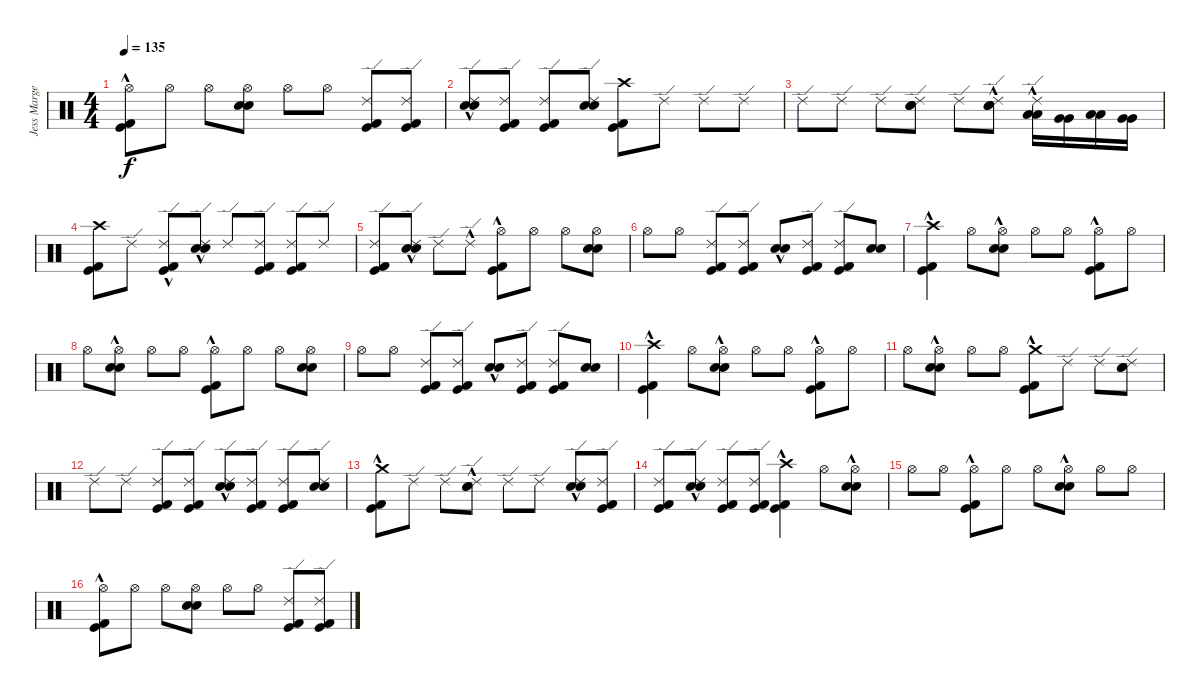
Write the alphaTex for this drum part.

\track ("Jess Margera" "Jess Marge") {instrument percussion}
\staff {score}
\articulation defaults
\ts (4 4)
\tempo 135
\clef neutral
\ks c
("Kick (hit)"{hac} "Kick (hit) 2"{hac} "Hi-Hat (open)").8{dy f} "Hi-Hat (open)".8 "Hi-Hat (open)".8 ("Electric Snare (hit)" "Electric Snare (hit)" "Hi-Hat (open)").8 "Hi-Hat (open)".8 "Hi-Hat (open)".8 ("Kick (hit)" "Kick (hit) 2" "Ride (edge) 2").8 ("Kick (hit)" "Kick (hit) 2" "Ride (edge) 2").8 |
("Electric Snare (hit)"{hac} "Electric Snare (hit)"{hac} "Ride (edge) 2").8 ("Kick (hit)" "Kick (hit) 2" "Ride (edge) 2").8 ("Kick (hit)" "Kick (hit) 2" "Ride (edge) 2").8 ("Electric Snare (hit)" "Electric Snare (hit)" "Ride (edge) 2").8 ("Kick (hit)" "Kick (hit) 2" "Crash high (hit)").8 "Ride (edge) 2".8 "Ride (edge) 2".8 "Ride (edge) 2".8 |
"Ride (edge) 2".8 "Ride (edge) 2".8 "Ride (edge) 2".8 ("Electric Snare (hit)" "Electric Snare (hit)" "Ride (edge) 2").8 "Ride (edge) 2".8 ("Electric Snare (hit)"{hac} "Electric Snare (hit)"{hac} "Ride (edge) 2").8 ("Low Tom (hit)" "Low Tom (hit)" "Ride (edge) 2"{hac}).16 ("Very Low Tom (hit)" "Very Low Tom (hit)").16 ("Low Tom (hit)" "Low Tom (hit)").16 ("Very Low Tom (hit)" "Very Low Tom (hit)").16 |
("Kick (hit)" "Kick (hit) 2" "Crash high (hit)").8 "Ride (edge) 2".8 ("Kick (hit)"{hac} "Kick (hit) 2"{hac} "Ride (edge) 2").8 ("Electric Snare (hit)"{hac} "Electric Snare (hit)"{hac} "Ride (edge) 2").8 "Ride (edge) 2".8 ("Kick (hit)" "Kick (hit) 2" "Ride (edge) 2").8 ("Kick (hit)" "Kick (hit) 2" "Ride (edge) 2").8 "Ride (edge) 2".8 |
("Kick (hit)" "Kick (hit) 2" "Ride (edge) 2").8 ("Electric Snare (hit)"{hac} "Electric Snare (hit)"{hac} "Ride (edge) 2").8 "Ride (edge) 2".8 "Ride (edge) 2"{hac}.8 ("Kick (hit)"{hac} "Kick (hit) 2"{hac} "Hi-Hat (open)").8 "Hi-Hat (open)".8 "Hi-Hat (open)".8 ("Electric Snare (hit)" "Electric Snare (hit)" "Hi-Hat (open)").8 |
"Hi-Hat (open)".8 "Hi-Hat (open)".8 ("Kick (hit)" "Kick (hit) 2" "Ride (edge) 2").8 ("Kick (hit)" "Kick (hit) 2" "Ride (edge) 2").8 ("Electric Snare (hit)"{hac} "Electric Snare (hit)"{hac}).8 ("Kick (hit)" "Kick (hit) 2" "Ride (edge) 2").8 ("Kick (hit)" "Kick (hit) 2" "Ride (edge) 2").8 ("Electric Snare (hit)" "Electric Snare (hit)").8 |
("Kick (hit)"{hac} "Kick (hit) 2"{hac} "Crash high (hit)").4 "Hi-Hat (open)".8 ("Electric Snare (hit)"{hac} "Electric Snare (hit)"{hac} "Hi-Hat (open)").8 "Hi-Hat (open)".8 "Hi-Hat (open)".8 ("Kick (hit)"{hac} "Kick (hit) 2"{hac} "Hi-Hat (open)").8 "Hi-Hat (open)".8 |
"Hi-Hat (open)".8 ("Electric Snare (hit)"{hac} "Electric Snare (hit)"{hac} "Hi-Hat (open)").8 "Hi-Hat (open)".8 "Hi-Hat (open)".8 ("Kick (hit)"{hac} "Kick (hit) 2"{hac} "Hi-Hat (open)").8 "Hi-Hat (open)".8 "Hi-Hat (open)".8 ("Electric Snare (hit)" "Electric Snare (hit)" "Hi-Hat (open)").8 |
"Hi-Hat (open)".8 "Hi-Hat (open)".8 ("Kick (hit)" "Kick (hit) 2" "Ride (edge) 2").8 ("Kick (hit)" "Kick (hit) 2" "Ride (edge) 2").8 ("Electric Snare (hit)"{hac} "Electric Snare (hit)"{hac}).8 ("Kick (hit)" "Kick (hit) 2" "Ride (edge) 2").8 ("Kick (hit)" "Kick (hit) 2" "Ride (edge) 2").8 ("Electric Snare (hit)" "Electric Snare (hit)").8 |
("Kick (hit)"{hac} "Kick (hit) 2"{hac} "Crash high (hit)").4 "Hi-Hat (open)".8 ("Electric Snare (hit)"{hac} "Electric Snare (hit)"{hac} "Hi-Hat (open)").8 "Hi-Hat (open)".8 "Hi-Hat (open)".8 ("Kick (hit)"{hac} "Kick (hit) 2"{hac} "Hi-Hat (open)").8 "Hi-Hat (open)".8 |
"Hi-Hat (open)".8 ("Electric Snare (hit)"{hac} "Electric Snare (hit)"{hac} "Hi-Hat (open)").8 "Hi-Hat (open)".8 "Hi-Hat (open)".8 ("Kick (hit)"{hac} "Kick (hit) 2"{hac} "Crash medium (hit)").8 "Ride (edge) 2".8 "Ride (edge) 2".8 ("Electric Snare (hit)" "Electric Snare (hit)" "Ride (edge) 2").8 |
"Ride (edge) 2".8 "Ride (edge) 2".8 ("Kick (hit)" "Kick (hit) 2" "Ride (edge) 2").8 ("Kick (hit)" "Kick (hit) 2" "Ride (edge) 2").8 ("Electric Snare (hit)"{hac} "Electric Snare (hit)"{hac} "Ride (edge) 2").8 ("Kick (hit)" "Kick (hit) 2" "Ride (edge) 2").8 ("Kick (hit)" "Kick (hit) 2" "Ride (edge) 2").8 ("Electric Snare (hit)" "Electric Snare (hit)" "Ride (edge) 2").8 |
("Kick (hit)"{hac} "Kick (hit) 2"{hac} "Crash medium (hit)").8 "Ride (edge) 2".8 "Ride (edge) 2".8 ("Electric Snare (hit)"{hac} "Electric Snare (hit)"{hac} "Ride (edge) 2").8 "Ride (edge) 2".8 "Ride (edge) 2".8 ("Electric Snare (hit)"{hac} "Electric Snare (hit)"{hac} "Ride (edge) 2").8 ("Kick (hit)" "Kick (hit) 2" "Ride (edge) 2").8 |
("Kick (hit)" "Kick (hit) 2" "Ride (edge) 2").8 ("Electric Snare (hit)"{hac} "Electric Snare (hit)"{hac} "Ride (edge) 2").8 ("Kick (hit)" "Kick (hit) 2" "Ride (edge) 2").8 ("Kick (hit)" "Kick (hit) 2" "Ride (edge) 2").8 ("Kick (hit)"{hac} "Kick (hit) 2"{hac} "Crash high (hit)").4 "Hi-Hat (open)".8 ("Electric Snare (hit)"{hac} "Electric Snare (hit)"{hac} "Hi-Hat (open)").8 |
"Hi-Hat (open)".8 "Hi-Hat (open)".8 ("Kick (hit)"{hac} "Kick (hit) 2"{hac} "Hi-Hat (open)").8 "Hi-Hat (open)".8 "Hi-Hat (open)".8 ("Electric Snare (hit)"{hac} "Electric Snare (hit)"{hac} "Hi-Hat (open)").8 "Hi-Hat (open)".8 "Hi-Hat (open)".8 |
("Kick (hit)"{hac} "Kick (hit) 2"{hac} "Hi-Hat (open)").8 "Hi-Hat (open)".8 "Hi-Hat (open)".8 ("Electric Snare (hit)" "Electric Snare (hit)" "Hi-Hat (open)").8 "Hi-Hat (open)".8 "Hi-Hat (open)".8 ("Kick (hit)" "Kick (hit) 2" "Ride (edge) 2").8 ("Kick (hit)" "Kick (hit) 2" "Ride (edge) 2").8
